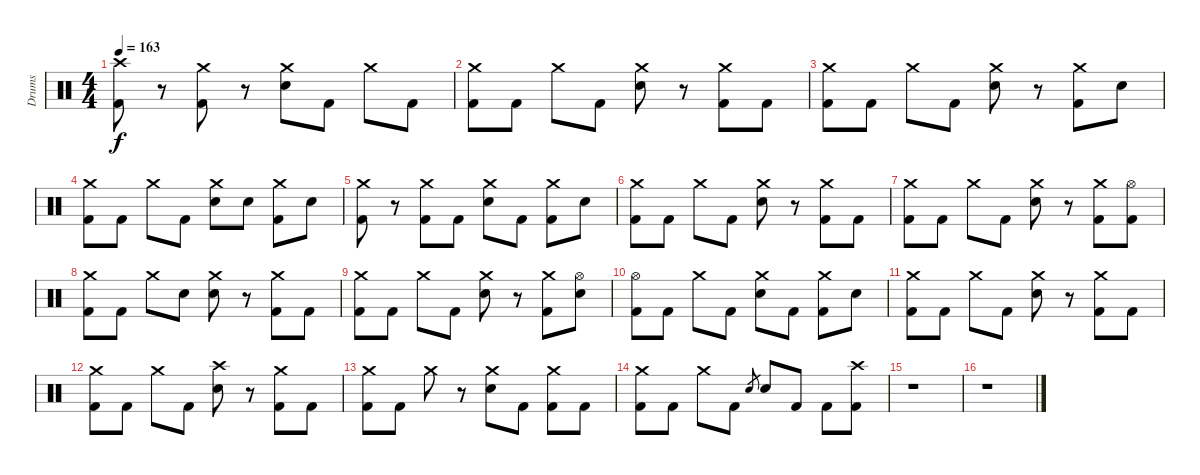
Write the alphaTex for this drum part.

\track ("Drums" "Drums") {instrument percussion}
\staff {score}
\articulation defaults
\ts (4 4)
\tempo 163
\clef neutral
\ks c
("Crash high (hit)" "Kick (hit) 2").8{dy f} r.8 ("Crash medium (hit)" "Kick (hit) 2").8 r.8 ("Crash medium (hit)" "Electric Snare (hit)").8 "Kick (hit) 2".8 "Crash medium (hit)".8 "Kick (hit) 2".8 |
("Crash medium (hit)" "Kick (hit) 2").8 "Kick (hit) 2".8 "Crash medium (hit)".8 "Kick (hit) 2".8 ("Crash medium (hit)" "Electric Snare (hit)").8 r.8 ("Crash medium (hit)" "Kick (hit) 2").8 "Kick (hit) 2".8 |
("Crash medium (hit)" "Kick (hit) 2").8 "Kick (hit) 2".8 "Crash medium (hit)".8 "Kick (hit) 2".8 ("Crash medium (hit)" "Electric Snare (hit)").8 r.8 ("Crash medium (hit)" "Kick (hit) 2").8 "Electric Snare (hit)".8 |
("Crash medium (hit)" "Kick (hit) 2").8 "Kick (hit) 2".8 "Crash medium (hit)".8 "Kick (hit) 2".8 ("Crash medium (hit)" "Electric Snare (hit)").8 "Electric Snare (hit)".8 ("Crash medium (hit)" "Kick (hit) 2").8 "Electric Snare (hit)".8 |
("Crash medium (hit)" "Kick (hit) 2").8 r.8 ("Crash medium (hit)" "Kick (hit) 2").8 "Kick (hit) 2".8 ("Crash medium (hit)" "Electric Snare (hit)").8 "Kick (hit) 2".8 ("Crash medium (hit)" "Kick (hit) 2").8 "Electric Snare (hit)".8 |
("Crash medium (hit)" "Kick (hit) 2").8 "Kick (hit) 2".8 "Crash medium (hit)".8 "Kick (hit) 2".8 ("Crash medium (hit)" "Electric Snare (hit)").8 r.8 ("Crash medium (hit)" "Kick (hit) 2").8 "Kick (hit) 2".8 |
("Crash medium (hit)" "Kick (hit) 2").8 "Kick (hit) 2".8 "Crash medium (hit)".8 "Kick (hit) 2".8 ("Crash medium (hit)" "Electric Snare (hit)").8 r.8 ("Crash medium (hit)" "Kick (hit) 2").8 ("Hi-Hat (open)" "Kick (hit) 2").8 |
("Crash medium (hit)" "Kick (hit) 2").8 "Kick (hit) 2".8 "Crash medium (hit)".8 "Electric Snare (hit)".8 ("Crash medium (hit)" "Electric Snare (hit)").8 r.8 ("Crash medium (hit)" "Kick (hit) 2").8 "Kick (hit) 2".8 |
("Crash medium (hit)" "Kick (hit) 2").8 "Kick (hit) 2".8 "Crash medium (hit)".8 "Kick (hit) 2".8 ("Crash medium (hit)" "Electric Snare (hit)").8 r.8 ("Crash medium (hit)" "Kick (hit) 2").8 ("Hi-Hat (open)" "Electric Snare (hit)").8 |
("Hi-Hat (open)" "Kick (hit) 2").8 "Kick (hit) 2".8 "Crash medium (hit)".8 "Kick (hit) 2".8 ("Crash medium (hit)" "Electric Snare (hit)").8 "Kick (hit) 2".8 ("Crash medium (hit)" "Kick (hit) 2").8 "Electric Snare (hit)".8 |
("Crash medium (hit)" "Kick (hit) 2").8 "Kick (hit) 2".8 "Crash medium (hit)".8 "Kick (hit) 2".8 ("Crash medium (hit)" "Electric Snare (hit)").8 r.8 ("Crash medium (hit)" "Kick (hit) 2").8 "Kick (hit) 2".8 |
("Crash medium (hit)" "Kick (hit) 2").8 "Kick (hit) 2".8 "Crash medium (hit)".8 "Kick (hit) 2".8 ("Crash high (hit)" "Electric Snare (hit)").8 r.8 ("Crash medium (hit)" "Kick (hit) 2").8 "Kick (hit) 2".8 |
("Crash medium (hit)" "Kick (hit) 2").8 "Kick (hit) 2".8 "Crash medium (hit)".8 r.8 ("Crash medium (hit)" "Electric Snare (hit)").8 "Kick (hit) 2".8 ("Crash medium (hit)" "Kick (hit) 2").8 "Kick (hit) 2".8 |
("Crash medium (hit)" "Kick (hit) 2").8 "Kick (hit) 2".8 "Crash medium (hit)".8 "Kick (hit) 2".8 "Electric Snare (hit)".8{gr} "Electric Snare (hit)".8 "Kick (hit) 2".8 "Kick (hit) 2".8 ("Crash high (hit)" "Kick (hit) 2").8 |
r.1 |
r.1
